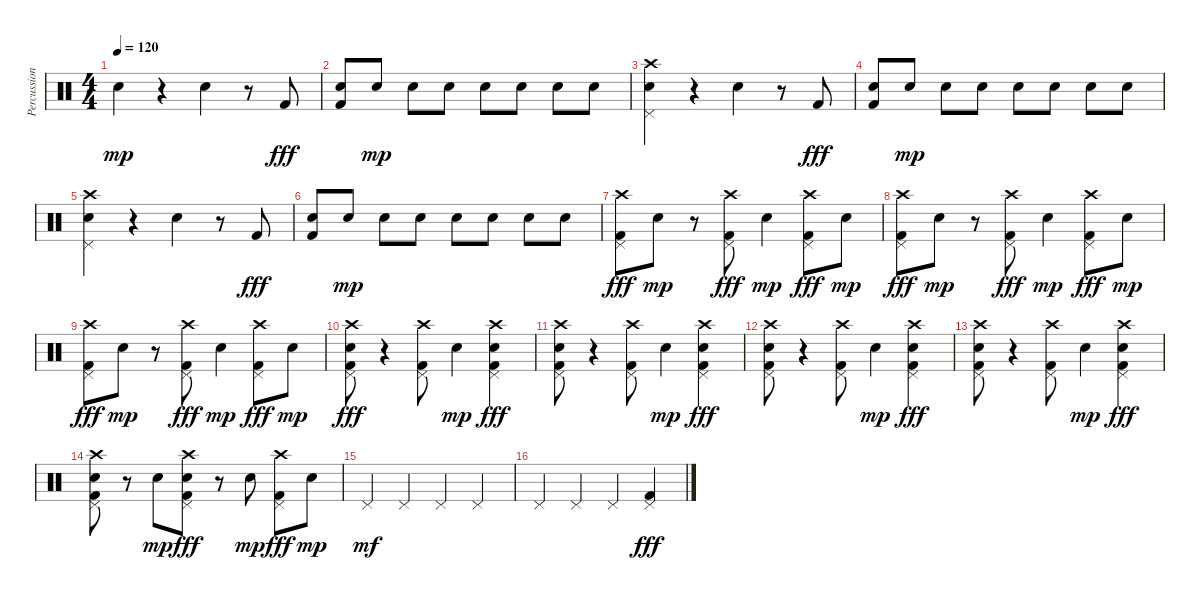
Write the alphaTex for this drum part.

\track ("Percussion" "Percussion") {instrument percussion}
\staff {score}
\articulation defaults
\ts (4 4)
\tempo 120
\clef neutral
\ks c "Electric Snare (hit)".4{dy mp}
r.4 "Electric Snare (hit)".4 r.8 "Kick (hit) 2".8{dy fff} |
("Electric Snare (hit)" "Kick (hit) 2").8 "Electric Snare (hit)".8{dy mp} "Electric Snare (hit)".8 "Electric Snare (hit)".8 "Electric Snare (hit)".8 "Electric Snare (hit)".8 "Electric Snare (hit)".8 "Electric Snare (hit)".8 |
("Pedal Hi-Hat (hit)" "Crash high (hit)" "Electric Snare (hit)").4 r.4 "Electric Snare (hit)".4 r.8 "Kick (hit) 2".8{dy fff} |
("Electric Snare (hit)" "Kick (hit) 2").8 "Electric Snare (hit)".8{dy mp} "Electric Snare (hit)".8 "Electric Snare (hit)".8 "Electric Snare (hit)".8 "Electric Snare (hit)".8 "Electric Snare (hit)".8 "Electric Snare (hit)".8 |
("Pedal Hi-Hat (hit)" "Crash high (hit)" "Electric Snare (hit)").4 r.4 "Electric Snare (hit)".4 r.8 "Kick (hit) 2".8{dy fff} |
("Electric Snare (hit)" "Kick (hit) 2").8 "Electric Snare (hit)".8{dy mp} "Electric Snare (hit)".8 "Electric Snare (hit)".8 "Electric Snare (hit)".8 "Electric Snare (hit)".8 "Electric Snare (hit)".8 "Electric Snare (hit)".8 |
("Pedal Hi-Hat (hit)" "Crash high (hit)" "Kick (hit) 2").8{dy fff} "Electric Snare (hit)".8{dy mp} r.8 ("Pedal Hi-Hat (hit)" "Crash high (hit)" "Kick (hit) 2").8{dy fff} "Electric Snare (hit)".4{dy mp} ("Pedal Hi-Hat (hit)" "Crash high (hit)" "Kick (hit) 2").8{dy fff} "Electric Snare (hit)".8{dy mp} |
("Pedal Hi-Hat (hit)" "Crash high (hit)" "Kick (hit) 2").8{dy fff} "Electric Snare (hit)".8{dy mp} r.8 ("Pedal Hi-Hat (hit)" "Crash high (hit)" "Kick (hit) 2").8{dy fff} "Electric Snare (hit)".4{dy mp} ("Pedal Hi-Hat (hit)" "Crash high (hit)" "Kick (hit) 2").8{dy fff} "Electric Snare (hit)".8{dy mp} |
("Pedal Hi-Hat (hit)" "Crash high (hit)" "Kick (hit) 2").8{dy fff} "Electric Snare (hit)".8{dy mp} r.8 ("Pedal Hi-Hat (hit)" "Crash high (hit)" "Kick (hit) 2").8{dy fff} "Electric Snare (hit)".4{dy mp} ("Pedal Hi-Hat (hit)" "Crash high (hit)" "Kick (hit) 2").8{dy fff} "Electric Snare (hit)".8{dy mp} |
("Pedal Hi-Hat (hit)" "Crash high (hit)" "Electric Snare (hit)" "Kick (hit) 2").8{dy fff} r.4 ("Pedal Hi-Hat (hit)" "Crash high (hit)" "Kick (hit) 2").8 "Electric Snare (hit)".4{dy mp} ("Pedal Hi-Hat (hit)" "Crash high (hit)" "Electric Snare (hit)" "Kick (hit) 2").4{dy fff} |
("Pedal Hi-Hat (hit)" "Crash high (hit)" "Electric Snare (hit)" "Kick (hit) 2").8 r.4 ("Pedal Hi-Hat (hit)" "Crash high (hit)" "Kick (hit) 2").8 "Electric Snare (hit)".4{dy mp} ("Pedal Hi-Hat (hit)" "Crash high (hit)" "Electric Snare (hit)" "Kick (hit) 2").4{dy fff} |
("Pedal Hi-Hat (hit)" "Crash high (hit)" "Electric Snare (hit)" "Kick (hit) 2").8 r.4 ("Pedal Hi-Hat (hit)" "Crash high (hit)" "Kick (hit) 2").8 "Electric Snare (hit)".4{dy mp} ("Pedal Hi-Hat (hit)" "Crash high (hit)" "Electric Snare (hit)" "Kick (hit) 2").4{dy fff} |
("Pedal Hi-Hat (hit)" "Crash high (hit)" "Electric Snare (hit)" "Kick (hit) 2").8 r.4 ("Pedal Hi-Hat (hit)" "Crash high (hit)" "Kick (hit) 2").8 "Electric Snare (hit)".4{dy mp} ("Pedal Hi-Hat (hit)" "Crash high (hit)" "Electric Snare (hit)" "Kick (hit) 2").4{dy fff} |
("Pedal Hi-Hat (hit)" "Crash high (hit)" "Electric Snare (hit)" "Kick (hit) 2").8 r.8 "Electric Snare (hit)".8{dy mp} ("Pedal Hi-Hat (hit)" "Crash high (hit)" "Electric Snare (hit)" "Kick (hit) 2").8{dy fff} r.8 "Electric Snare (hit)".8{dy mp} ("Pedal Hi-Hat (hit)" "Crash high (hit)" "Kick (hit) 2").8{dy fff} "Electric Snare (hit)".8{dy mp} |
"Pedal Hi-Hat (hit)".4{dy mf} "Pedal Hi-Hat (hit)".4 "Pedal Hi-Hat (hit)".4 "Pedal Hi-Hat (hit)".4 |
"Pedal Hi-Hat (hit)".4 "Pedal Hi-Hat (hit)".4 "Pedal Hi-Hat (hit)".4 ("Pedal Hi-Hat (hit)" "Kick (hit) 2").4{dy fff}
